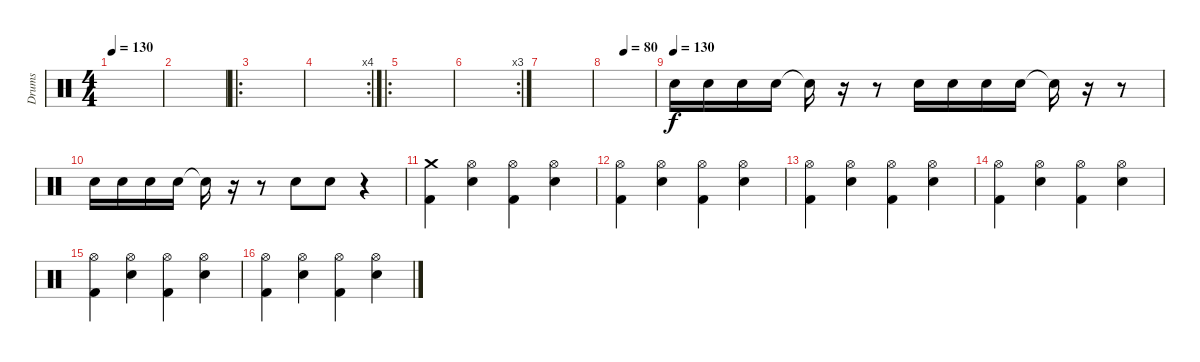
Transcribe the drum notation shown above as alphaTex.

\track ("Drums" "Drums") {instrument percussion}
\staff {score}
\articulation defaults
\ts (4 4)
\tempo 130
\clef neutral
\ks c
|
|
\ro
|
\rc 4
|
\ro
|
\rc 3
|
|
\tempo (80 0.375)
|
\tempo (130)
"Electric Snare (hit)".16 "Electric Snare (hit)".16 "Electric Snare (hit)".16 "Electric Snare (hit)".16 "Snare (hit)"{t}.16 r.16 r.8 "Electric Snare (hit)".16 "Electric Snare (hit)".16 "Electric Snare (hit)".16 "Electric Snare (hit)".16 "Snare (hit)"{t}.16 r.16 r.8 |
"Electric Snare (hit)".16 "Electric Snare (hit)".16 "Electric Snare (hit)".16 "Electric Snare (hit)".16 "Snare (hit)"{t}.16 r.16 r.8 "Electric Snare (hit)".8 "Electric Snare (hit)".8 r.4 |
("Crash medium (hit)" "Kick (hit) 2").4 ("Hi-Hat (open)" "Electric Snare (hit)").4 ("Hi-Hat (open)" "Kick (hit) 2").4 ("Hi-Hat (open)" "Electric Snare (hit)").4 |
("Hi-Hat (open)" "Kick (hit) 2").4 ("Hi-Hat (open)" "Electric Snare (hit)").4 ("Hi-Hat (open)" "Kick (hit) 2").4 ("Hi-Hat (open)" "Electric Snare (hit)").4 |
("Hi-Hat (open)" "Kick (hit) 2").4 ("Hi-Hat (open)" "Electric Snare (hit)").4 ("Hi-Hat (open)" "Kick (hit) 2").4 ("Hi-Hat (open)" "Electric Snare (hit)").4 |
("Hi-Hat (open)" "Kick (hit) 2").4 ("Hi-Hat (open)" "Electric Snare (hit)").4 ("Hi-Hat (open)" "Kick (hit) 2").4 ("Hi-Hat (open)" "Electric Snare (hit)").4 |
("Hi-Hat (open)" "Kick (hit) 2").4 ("Hi-Hat (open)" "Electric Snare (hit)").4 ("Hi-Hat (open)" "Kick (hit) 2").4 ("Hi-Hat (open)" "Electric Snare (hit)").4 |
("Hi-Hat (open)" "Kick (hit) 2").4 ("Hi-Hat (open)" "Electric Snare (hit)").4 ("Hi-Hat (open)" "Kick (hit) 2").4 ("Hi-Hat (open)" "Electric Snare (hit)").4
